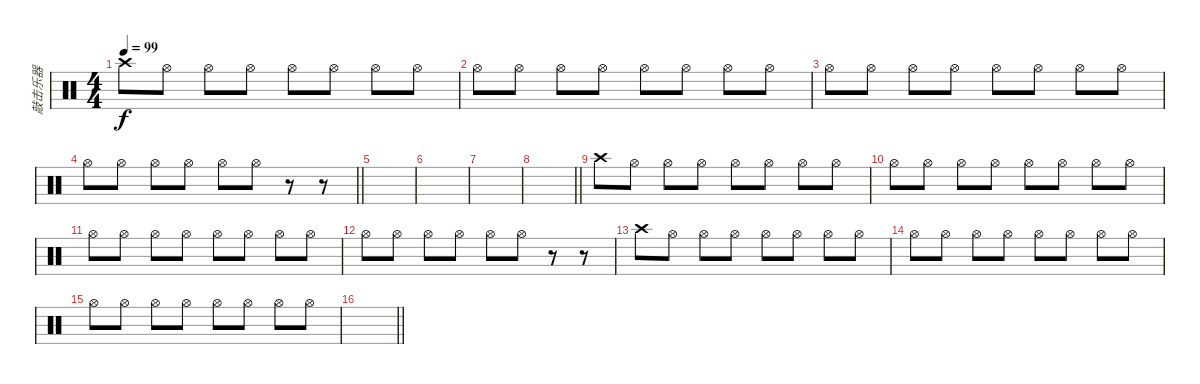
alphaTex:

\track ("敲击乐器" "敲击乐器") {instrument percussion}
\staff {score}
\articulation defaults
\ts (4 4)
\tempo 99
\clef neutral
\ks c "Crash high (hit)".8{dy f} "Hi-Hat (open)".8 "Hi-Hat (open)".8 "Hi-Hat (open)".8 "Hi-Hat (open)".8 "Hi-Hat (open)".8 "Hi-Hat (open)".8 "Hi-Hat (open)".8
|
"Hi-Hat (open)".8 "Hi-Hat (open)".8 "Hi-Hat (open)".8 "Hi-Hat (open)".8 "Hi-Hat (open)".8 "Hi-Hat (open)".8 "Hi-Hat (open)".8 "Hi-Hat (open)".8 |
"Hi-Hat (open)".8 "Hi-Hat (open)".8 "Hi-Hat (open)".8 "Hi-Hat (open)".8 "Hi-Hat (open)".8 "Hi-Hat (open)".8 "Hi-Hat (open)".8 "Hi-Hat (open)".8 |
\barLineRight lightlight "Hi-Hat (open)".8 "Hi-Hat (open)".8 "Hi-Hat (open)".8 "Hi-Hat (open)".8 "Hi-Hat (open)".8 "Hi-Hat (open)".8
r.8 r.8 |
|
|
|
\barLineRight lightlight
|
"Crash high (hit)".8 "Hi-Hat (open)".8 "Hi-Hat (open)".8 "Hi-Hat (open)".8 "Hi-Hat (open)".8 "Hi-Hat (open)".8 "Hi-Hat (open)".8 "Hi-Hat (open)".8 |
"Hi-Hat (open)".8 "Hi-Hat (open)".8 "Hi-Hat (open)".8 "Hi-Hat (open)".8 "Hi-Hat (open)".8 "Hi-Hat (open)".8 "Hi-Hat (open)".8 "Hi-Hat (open)".8 |
"Hi-Hat (open)".8 "Hi-Hat (open)".8 "Hi-Hat (open)".8 "Hi-Hat (open)".8 "Hi-Hat (open)".8 "Hi-Hat (open)".8 "Hi-Hat (open)".8 "Hi-Hat (open)".8 |
"Hi-Hat (open)".8 "Hi-Hat (open)".8 "Hi-Hat (open)".8 "Hi-Hat (open)".8 "Hi-Hat (open)".8 "Hi-Hat (open)".8 r.8 r.8 |
"Crash high (hit)".8 "Hi-Hat (open)".8 "Hi-Hat (open)".8 "Hi-Hat (open)".8 "Hi-Hat (open)".8 "Hi-Hat (open)".8 "Hi-Hat (open)".8 "Hi-Hat (open)".8 |
"Hi-Hat (open)".8 "Hi-Hat (open)".8 "Hi-Hat (open)".8 "Hi-Hat (open)".8 "Hi-Hat (open)".8 "Hi-Hat (open)".8 "Hi-Hat (open)".8 "Hi-Hat (open)".8 |
"Hi-Hat (open)".8 "Hi-Hat (open)".8 "Hi-Hat (open)".8 "Hi-Hat (open)".8 "Hi-Hat (open)".8 "Hi-Hat (open)".8 "Hi-Hat (open)".8 "Hi-Hat (open)".8 |
\barLineRight lightlight
